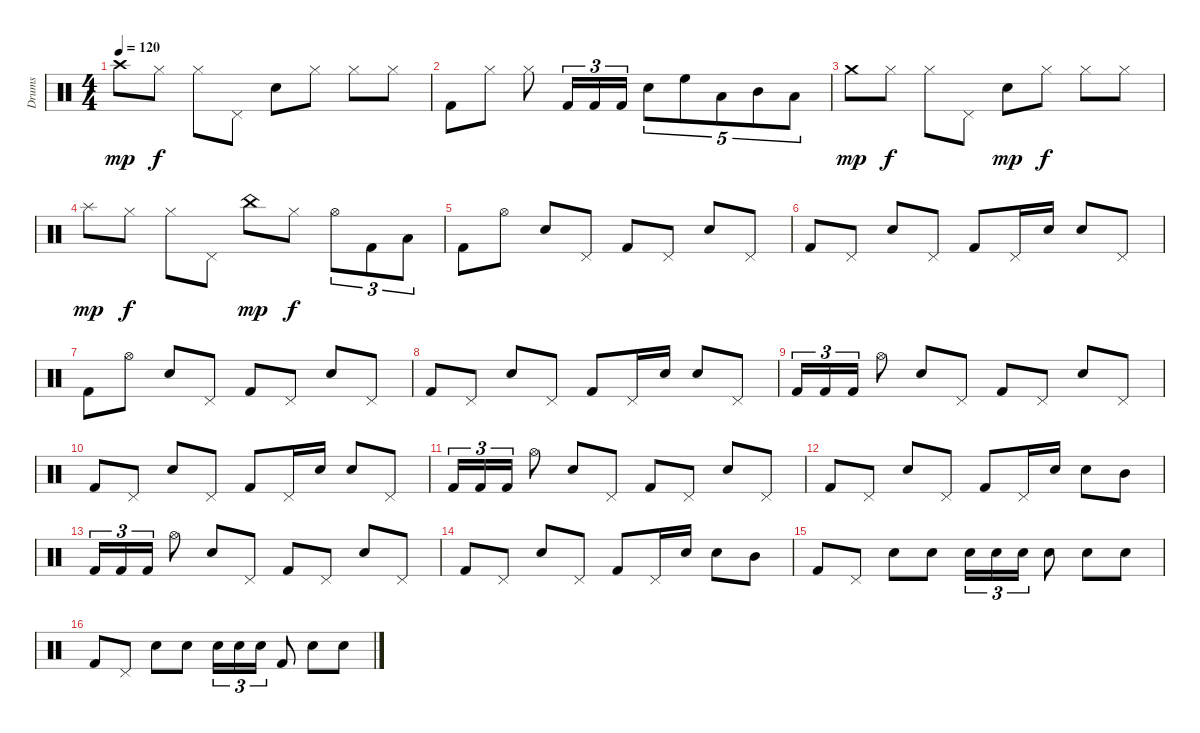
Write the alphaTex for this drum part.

\track ("Drums" "Drums") {instrument percussion}
\staff {score}
\articulation defaults
\ts (4 4)
\tempo 120
\clef neutral
\ks c "Crash high (hit)".8{dy mp} "Hi-Hat (closed)".8{dy f} "Hi-Hat (closed)".8 "Pedal Hi-Hat (hit)".8 "Electric Snare (hit)".8 "Hi-Hat (closed)".8 "Hi-Hat (closed)".8 "Hi-Hat (closed)".8
|
"Kick (hit) 2".8 "Hi-Hat (closed)".8 "Hi-Hat (closed)".8 "Kick (hit) 2".16{tu (3 2)} "Kick (hit) 2".16{tu (3 2)} "Kick (hit) 2".16{tu (3 2)} "Electric Snare (hit)".8{tu (5 4)} "High Floor Tom (hit)".8{tu (5 4)} "Low Tom (hit)".8{tu (5 4)} "Mid Tom (hit)".8{tu (5 4)} "Low Tom (hit)".8{tu (5 4)} |
"Crash medium (hit)".8{dy mp} "Hi-Hat (closed)".8{dy f} "Hi-Hat (closed)".8 "Pedal Hi-Hat (hit)".8 "Electric Snare (hit)".8{dy mp} "Hi-Hat (closed)".8{dy f} "Hi-Hat (closed)".8 "Hi-Hat (closed)".8 |
"Splash (hit)".8{dy mp} "Hi-Hat (closed)".8{dy f} "Hi-Hat (closed)".8 "Pedal Hi-Hat (hit)".8 "China (hit)".8{dy mp} "Hi-Hat (closed)".8{dy f} "Hi-Hat (open)".8{tu (3 2)} "Kick (hit) 2".8{tu (3 2)} "Low Tom (hit)".8{tu (3 2)} |
"Kick (hit) 2".8 "Hi-Hat (open)".8 "Electric Snare (hit)".8 "Pedal Hi-Hat (hit)".8 "Kick (hit) 2".8 "Pedal Hi-Hat (hit)".8 "Electric Snare (hit)".8 "Pedal Hi-Hat (hit)".8 |
"Kick (hit) 2".8 "Pedal Hi-Hat (hit)".8 "Electric Snare (hit)".8 "Pedal Hi-Hat (hit)".8 "Kick (hit) 2".8 "Pedal Hi-Hat (hit)".16 "Electric Snare (hit)".16 "Electric Snare (hit)".8 "Pedal Hi-Hat (hit)".8 |
"Kick (hit) 2".8 "Hi-Hat (open)".8 "Electric Snare (hit)".8 "Pedal Hi-Hat (hit)".8 "Kick (hit) 2".8 "Pedal Hi-Hat (hit)".8 "Electric Snare (hit)".8 "Pedal Hi-Hat (hit)".8 |
"Kick (hit) 2".8 "Pedal Hi-Hat (hit)".8 "Electric Snare (hit)".8 "Pedal Hi-Hat (hit)".8 "Kick (hit) 2".8 "Pedal Hi-Hat (hit)".16 "Electric Snare (hit)".16 "Electric Snare (hit)".8 "Pedal Hi-Hat (hit)".8 |
"Kick (hit) 2".16{tu (3 2)} "Kick (hit) 2".16{tu (3 2)} "Kick (hit) 2".16{tu (3 2)} "Hi-Hat (open)".8 "Electric Snare (hit)".8 "Pedal Hi-Hat (hit)".8 "Kick (hit) 2".8 "Pedal Hi-Hat (hit)".8 "Electric Snare (hit)".8 "Pedal Hi-Hat (hit)".8 |
"Kick (hit) 2".8 "Pedal Hi-Hat (hit)".8 "Electric Snare (hit)".8 "Pedal Hi-Hat (hit)".8 "Kick (hit) 2".8 "Pedal Hi-Hat (hit)".16 "Electric Snare (hit)".16 "Electric Snare (hit)".8 "Pedal Hi-Hat (hit)".8 |
"Kick (hit) 2".16{tu (3 2)} "Kick (hit) 2".16{tu (3 2)} "Kick (hit) 2".16{tu (3 2)} "Hi-Hat (open)".8 "Electric Snare (hit)".8 "Pedal Hi-Hat (hit)".8 "Kick (hit) 2".8 "Pedal Hi-Hat (hit)".8 "Electric Snare (hit)".8 "Pedal Hi-Hat (hit)".8 |
"Kick (hit) 2".8 "Pedal Hi-Hat (hit)".8 "Electric Snare (hit)".8 "Pedal Hi-Hat (hit)".8 "Kick (hit) 2".8 "Pedal Hi-Hat (hit)".16 "Electric Snare (hit)".16 "Electric Snare (hit)".8 "Mid Tom (hit)".8 |
"Kick (hit) 2".16{tu (3 2)} "Kick (hit) 2".16{tu (3 2)} "Kick (hit) 2".16{tu (3 2)} "Hi-Hat (open)".8 "Electric Snare (hit)".8 "Pedal Hi-Hat (hit)".8 "Kick (hit) 2".8 "Pedal Hi-Hat (hit)".8 "Electric Snare (hit)".8 "Pedal Hi-Hat (hit)".8 |
"Kick (hit) 2".8 "Pedal Hi-Hat (hit)".8 "Electric Snare (hit)".8 "Pedal Hi-Hat (hit)".8 "Kick (hit) 2".8 "Pedal Hi-Hat (hit)".16 "Electric Snare (hit)".16 "Electric Snare (hit)".8 "Mid Tom (hit)".8 |
"Kick (hit) 2".8 "Pedal Hi-Hat (hit)".8 "Electric Snare (hit)".8 "Electric Snare (hit)".8 "Electric Snare (hit)".16{tu (3 2)} "Electric Snare (hit)".16{tu (3 2)} "Electric Snare (hit)".16{tu (3 2)} "Electric Snare (hit)".8 "Electric Snare (hit)".8 "Electric Snare (hit)".8 |
"Kick (hit) 2".8 "Pedal Hi-Hat (hit)".8 "Electric Snare (hit)".8 "Electric Snare (hit)".8 "Electric Snare (hit)".16{tu (3 2)} "Electric Snare (hit)".16{tu (3 2)} "Electric Snare (hit)".16{tu (3 2)} "Kick (hit) 2".8 "Electric Snare (hit)".8 "Electric Snare (hit)".8
